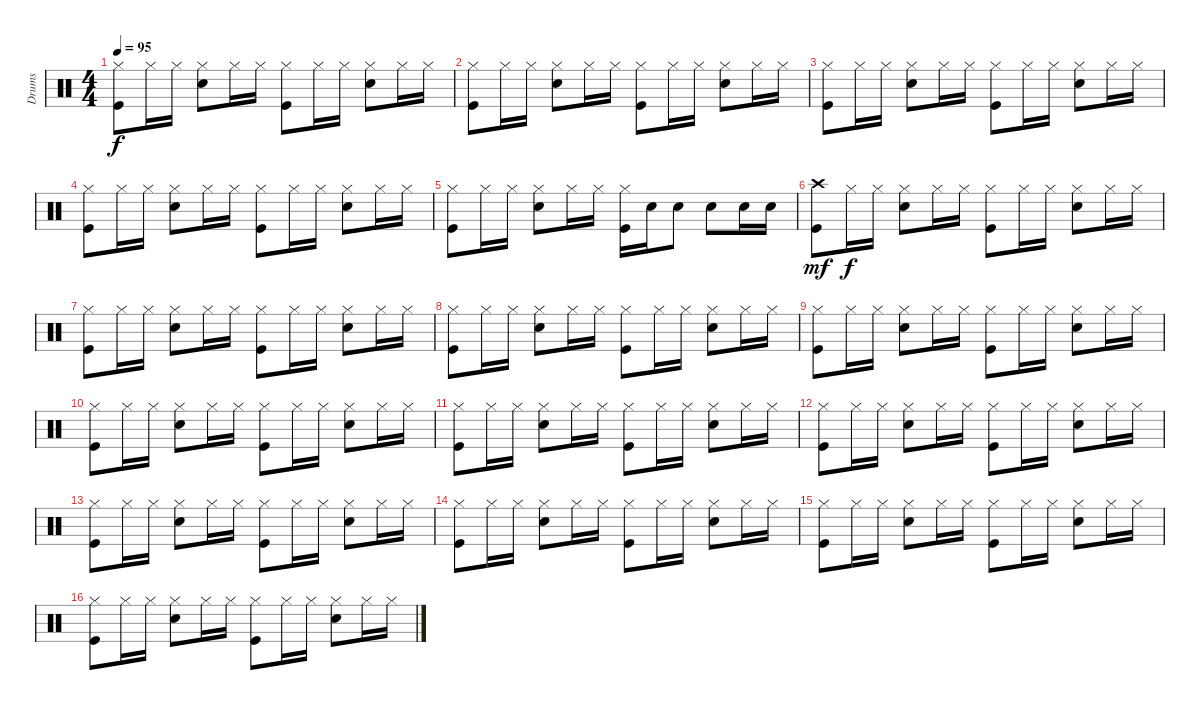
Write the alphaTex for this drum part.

\track ("Drums" "Drums") {instrument percussion}
\staff {score}
\articulation defaults
\ts (4 4)
\tempo 95
\clef neutral
\ks c
("Hi-Hat (closed)" "Kick (hit)").8{dy f} "Hi-Hat (closed)".16 "Hi-Hat (closed)".16 ("Hi-Hat (closed)" "Snare (hit) 2").8 "Hi-Hat (closed)".16 "Hi-Hat (closed)".16 ("Hi-Hat (closed)" "Kick (hit)").8 "Hi-Hat (closed)".16 "Hi-Hat (closed)".16 ("Hi-Hat (closed)" "Snare (hit) 2").8 "Hi-Hat (closed)".16 "Hi-Hat (closed)".16 |
("Hi-Hat (closed)" "Kick (hit)").8 "Hi-Hat (closed)".16 "Hi-Hat (closed)".16 ("Hi-Hat (closed)" "Snare (hit) 2").8 "Hi-Hat (closed)".16 "Hi-Hat (closed)".16 ("Hi-Hat (closed)" "Kick (hit)").8 "Hi-Hat (closed)".16 "Hi-Hat (closed)".16 ("Hi-Hat (closed)" "Snare (hit) 2").8 "Hi-Hat (closed)".16 "Hi-Hat (closed)".16 |
("Hi-Hat (closed)" "Kick (hit)").8 "Hi-Hat (closed)".16 "Hi-Hat (closed)".16 ("Hi-Hat (closed)" "Snare (hit) 2").8 "Hi-Hat (closed)".16 "Hi-Hat (closed)".16 ("Hi-Hat (closed)" "Kick (hit)").8 "Hi-Hat (closed)".16 "Hi-Hat (closed)".16 ("Hi-Hat (closed)" "Snare (hit) 2").8 "Hi-Hat (closed)".16 "Hi-Hat (closed)".16 |
("Hi-Hat (closed)" "Kick (hit)").8 "Hi-Hat (closed)".16 "Hi-Hat (closed)".16 ("Hi-Hat (closed)" "Snare (hit) 2").8 "Hi-Hat (closed)".16 "Hi-Hat (closed)".16 ("Hi-Hat (closed)" "Kick (hit)").8 "Hi-Hat (closed)".16 "Hi-Hat (closed)".16 ("Hi-Hat (closed)" "Snare (hit) 2").8 "Hi-Hat (closed)".16 "Hi-Hat (closed)".16 |
("Hi-Hat (closed)" "Kick (hit)").8 "Hi-Hat (closed)".16 "Hi-Hat (closed)".16 ("Hi-Hat (closed)" "Snare (hit) 2").8 "Hi-Hat (closed)".16 "Hi-Hat (closed)".16 ("Hi-Hat (closed)" "Kick (hit)").16 "Snare (hit) 2".16 "Snare (hit) 2".8 "Snare (hit) 2".8 "Snare (hit) 2".16 "Snare (hit) 2".16 |
("Crash high (hit)" "Kick (hit)").8{dy mf} "Hi-Hat (closed)".16{dy f} "Hi-Hat (closed)".16 ("Hi-Hat (closed)" "Snare (hit) 2").8 "Hi-Hat (closed)".16 "Hi-Hat (closed)".16 ("Hi-Hat (closed)" "Kick (hit)").8 "Hi-Hat (closed)".16 "Hi-Hat (closed)".16 ("Hi-Hat (closed)" "Snare (hit) 2").8 "Hi-Hat (closed)".16 "Hi-Hat (closed)".16 |
("Hi-Hat (closed)" "Kick (hit)").8 "Hi-Hat (closed)".16 "Hi-Hat (closed)".16 ("Hi-Hat (closed)" "Snare (hit) 2").8 "Hi-Hat (closed)".16 "Hi-Hat (closed)".16 ("Hi-Hat (closed)" "Kick (hit)").8 "Hi-Hat (closed)".16 "Hi-Hat (closed)".16 ("Hi-Hat (closed)" "Snare (hit) 2").8 "Hi-Hat (closed)".16 "Hi-Hat (closed)".16 |
("Hi-Hat (closed)" "Kick (hit)").8 "Hi-Hat (closed)".16 "Hi-Hat (closed)".16 ("Hi-Hat (closed)" "Snare (hit) 2").8 "Hi-Hat (closed)".16 "Hi-Hat (closed)".16 ("Hi-Hat (closed)" "Kick (hit)").8 "Hi-Hat (closed)".16 "Hi-Hat (closed)".16 ("Hi-Hat (closed)" "Snare (hit) 2").8 "Hi-Hat (closed)".16 "Hi-Hat (closed)".16 |
("Hi-Hat (closed)" "Kick (hit)").8 "Hi-Hat (closed)".16 "Hi-Hat (closed)".16 ("Hi-Hat (closed)" "Snare (hit) 2").8 "Hi-Hat (closed)".16 "Hi-Hat (closed)".16 ("Hi-Hat (closed)" "Kick (hit)").8 "Hi-Hat (closed)".16 "Hi-Hat (closed)".16 ("Hi-Hat (closed)" "Snare (hit) 2").8 "Hi-Hat (closed)".16 "Hi-Hat (closed)".16 |
("Hi-Hat (closed)" "Kick (hit)").8 "Hi-Hat (closed)".16 "Hi-Hat (closed)".16 ("Hi-Hat (closed)" "Snare (hit) 2").8 "Hi-Hat (closed)".16 "Hi-Hat (closed)".16 ("Hi-Hat (closed)" "Kick (hit)").8 "Hi-Hat (closed)".16 "Hi-Hat (closed)".16 ("Hi-Hat (closed)" "Snare (hit) 2").8 "Hi-Hat (closed)".16 "Hi-Hat (closed)".16 |
("Hi-Hat (closed)" "Kick (hit)").8 "Hi-Hat (closed)".16 "Hi-Hat (closed)".16 ("Hi-Hat (closed)" "Snare (hit) 2").8 "Hi-Hat (closed)".16 "Hi-Hat (closed)".16 ("Hi-Hat (closed)" "Kick (hit)").8 "Hi-Hat (closed)".16 "Hi-Hat (closed)".16 ("Hi-Hat (closed)" "Snare (hit) 2").8 "Hi-Hat (closed)".16 "Hi-Hat (closed)".16 |
("Hi-Hat (closed)" "Kick (hit)").8 "Hi-Hat (closed)".16 "Hi-Hat (closed)".16 ("Hi-Hat (closed)" "Snare (hit) 2").8 "Hi-Hat (closed)".16 "Hi-Hat (closed)".16 ("Hi-Hat (closed)" "Kick (hit)").8 "Hi-Hat (closed)".16 "Hi-Hat (closed)".16 ("Hi-Hat (closed)" "Snare (hit) 2").8 "Hi-Hat (closed)".16 "Hi-Hat (closed)".16 |
("Hi-Hat (closed)" "Kick (hit)").8 "Hi-Hat (closed)".16 "Hi-Hat (closed)".16 ("Hi-Hat (closed)" "Snare (hit) 2").8 "Hi-Hat (closed)".16 "Hi-Hat (closed)".16 ("Hi-Hat (closed)" "Kick (hit)").8 "Hi-Hat (closed)".16 "Hi-Hat (closed)".16 ("Hi-Hat (closed)" "Snare (hit) 2").8 "Hi-Hat (closed)".16 "Hi-Hat (closed)".16 |
("Hi-Hat (closed)" "Kick (hit)").8 "Hi-Hat (closed)".16 "Hi-Hat (closed)".16 ("Hi-Hat (closed)" "Snare (hit) 2").8 "Hi-Hat (closed)".16 "Hi-Hat (closed)".16 ("Hi-Hat (closed)" "Kick (hit)").8 "Hi-Hat (closed)".16 "Hi-Hat (closed)".16 ("Hi-Hat (closed)" "Snare (hit) 2").8 "Hi-Hat (closed)".16 "Hi-Hat (closed)".16 |
("Hi-Hat (closed)" "Kick (hit)").8 "Hi-Hat (closed)".16 "Hi-Hat (closed)".16 ("Hi-Hat (closed)" "Snare (hit) 2").8 "Hi-Hat (closed)".16 "Hi-Hat (closed)".16 ("Hi-Hat (closed)" "Kick (hit)").8 "Hi-Hat (closed)".16 "Hi-Hat (closed)".16 ("Hi-Hat (closed)" "Snare (hit) 2").8 "Hi-Hat (closed)".16 "Hi-Hat (closed)".16 |
("Hi-Hat (closed)" "Kick (hit)").8 "Hi-Hat (closed)".16 "Hi-Hat (closed)".16 ("Hi-Hat (closed)" "Snare (hit) 2").8 "Hi-Hat (closed)".16 "Hi-Hat (closed)".16 ("Hi-Hat (closed)" "Kick (hit)").8 "Hi-Hat (closed)".16 "Hi-Hat (closed)".16 ("Hi-Hat (closed)" "Snare (hit) 2").8 "Hi-Hat (closed)".16 "Hi-Hat (closed)".16
